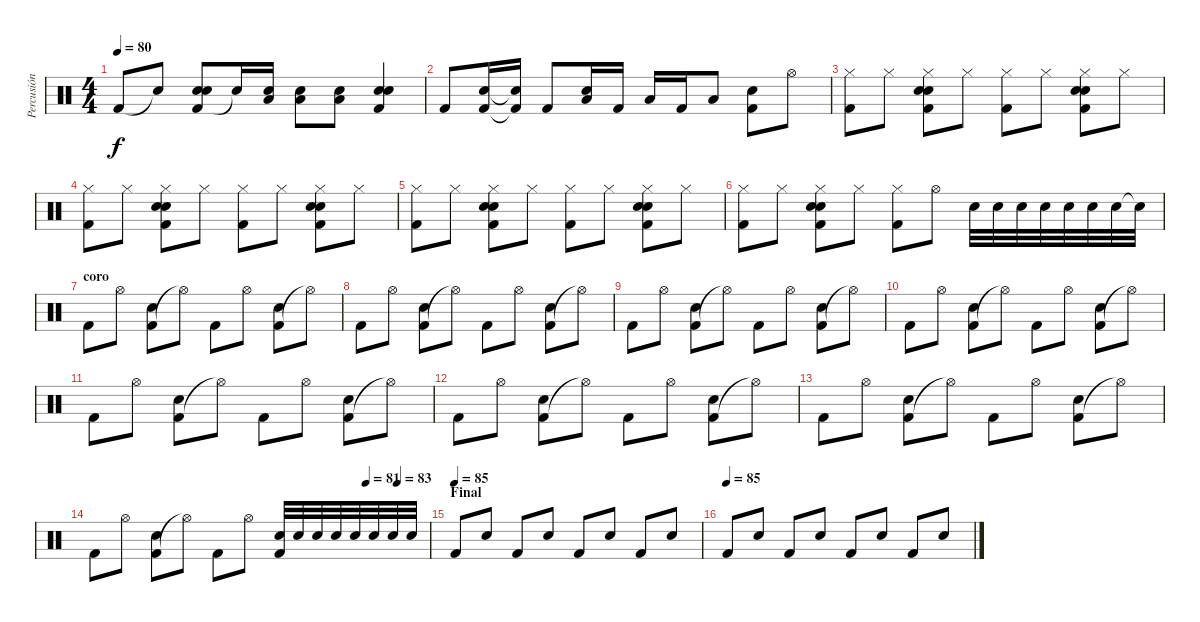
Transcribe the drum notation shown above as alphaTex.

\track ("Percusión" "Percusión") {instrument percussion}
\staff {score}
\articulation defaults
\ts (4 4)
\tempo 80
\clef neutral
\ks c "Kick (hit) 2".8{dy f} "Snare (hit)"{t}.8
("Kick (hit) 2" "Electric Snare (hit)" "Hand Clap (hit)").8 "Snare (hit)"{t}.16 ("Low Floor Tom (hit)" "Electric Snare (hit)").16 ("Low Floor Tom (hit)" "Electric Snare (hit)").8 ("Low Floor Tom (hit)" "Electric Snare (hit)").8 ("Kick (hit) 2" "Electric Snare (hit)" "Hand Clap (hit)").4 |
"Kick (hit) 2".8{volume 16} ("Kick (hit) 2" "Electric Snare (hit)").16 ("Kick (hit) 2"{t} "Electric Snare (hit)"{t}).16 "Kick (hit) 2".8 ("Low Floor Tom (hit)" "Electric Snare (hit)").16 "Kick (hit) 2".16 "Low Floor Tom (hit)".16 "Kick (hit) 2".16 "Low Floor Tom (hit)".8 ("Kick (hit) 2" "Electric Snare (hit)").8 "Hi-Hat (open)".8 |
("Hi-Hat (closed)" "Kick (hit) 2").8{volume 12} "Hi-Hat (closed)".8 ("Hi-Hat (closed)" "Kick (hit) 2" "Electric Snare (hit)" "Hand Clap (hit)").8 "Hi-Hat (closed)".8 ("Hi-Hat (closed)" "Kick (hit) 2").8 "Hi-Hat (closed)".8 ("Hi-Hat (closed)" "Kick (hit) 2" "Electric Snare (hit)" "Hand Clap (hit)").8 "Hi-Hat (closed)".8 |
("Hi-Hat (closed)" "Kick (hit) 2").8 "Hi-Hat (closed)".8 ("Hi-Hat (closed)" "Kick (hit) 2" "Electric Snare (hit)" "Hand Clap (hit)").8 "Hi-Hat (closed)".8 ("Hi-Hat (closed)" "Kick (hit) 2").8 "Hi-Hat (closed)".8 ("Hi-Hat (closed)" "Kick (hit) 2" "Electric Snare (hit)" "Hand Clap (hit)").8 "Hi-Hat (closed)".8 |
("Hi-Hat (closed)" "Kick (hit) 2").8 "Hi-Hat (closed)".8 ("Hi-Hat (closed)" "Kick (hit) 2" "Electric Snare (hit)" "Hand Clap (hit)").8 "Hi-Hat (closed)".8 ("Hi-Hat (closed)" "Kick (hit) 2").8 "Hi-Hat (closed)".8 ("Hi-Hat (closed)" "Kick (hit) 2" "Electric Snare (hit)" "Hand Clap (hit)").8 "Hi-Hat (closed)".8 |
("Hi-Hat (closed)" "Kick (hit) 2").8 "Hi-Hat (closed)".8 ("Hi-Hat (closed)" "Kick (hit) 2" "Electric Snare (hit)" "Hand Clap (hit)").8 "Hi-Hat (closed)".8 ("Hi-Hat (closed)" "Kick (hit) 2").8 "Hi-Hat (open)".8 "Electric Snare (hit)".32 "Electric Snare (hit)".32 "Electric Snare (hit)".32 "Electric Snare (hit)".32 "Electric Snare (hit)".32 "Electric Snare (hit)".32 "Electric Snare (hit)".32 "Electric Snare (hit)"{t}.32 |
\section ("" "coro")
"Kick (hit) 2".8 "Hi-Hat (open)".8 ("Kick (hit) 2" "Hand Clap (hit)").8 "Hi-Hat (open)"{t}.8 "Kick (hit) 2".8 "Hi-Hat (open)".8 ("Kick (hit) 2" "Hand Clap (hit)").8 "Hi-Hat (open)"{t}.8 |
"Kick (hit) 2".8 "Hi-Hat (open)".8 ("Kick (hit) 2" "Hand Clap (hit)").8 "Hi-Hat (open)"{t}.8 "Kick (hit) 2".8 "Hi-Hat (open)".8 ("Kick (hit) 2" "Hand Clap (hit)").8 "Hi-Hat (open)"{t}.8 |
"Kick (hit) 2".8 "Hi-Hat (open)".8 ("Kick (hit) 2" "Hand Clap (hit)").8 "Hi-Hat (open)"{t}.8 "Kick (hit) 2".8 "Hi-Hat (open)".8 ("Kick (hit) 2" "Hand Clap (hit)").8 "Hi-Hat (open)"{t}.8 |
"Kick (hit) 2".8 "Hi-Hat (open)".8 ("Kick (hit) 2" "Hand Clap (hit)").8 "Hi-Hat (open)"{t}.8 "Kick (hit) 2".8 "Hi-Hat (open)".8 ("Kick (hit) 2" "Hand Clap (hit)").8 "Hi-Hat (open)"{t}.8 |
"Kick (hit) 2".8 "Hi-Hat (open)".8 ("Kick (hit) 2" "Hand Clap (hit)").8 "Hi-Hat (open)"{t}.8 "Kick (hit) 2".8 "Hi-Hat (open)".8 ("Kick (hit) 2" "Hand Clap (hit)").8 "Hi-Hat (open)"{t}.8 |
"Kick (hit) 2".8 "Hi-Hat (open)".8 ("Kick (hit) 2" "Hand Clap (hit)").8 "Hi-Hat (open)"{t}.8 "Kick (hit) 2".8 "Hi-Hat (open)".8 ("Kick (hit) 2" "Hand Clap (hit)").8 "Hi-Hat (open)"{t}.8 |
"Kick (hit) 2".8 "Hi-Hat (open)".8 ("Kick (hit) 2" "Hand Clap (hit)").8 "Hi-Hat (open)"{t}.8 "Kick (hit) 2".8 "Hi-Hat (open)".8 ("Kick (hit) 2" "Hand Clap (hit)").8 "Hi-Hat (open)"{t}.8 |
\tempo (81 0.8125)
\tempo (83 0.90625)
"Kick (hit) 2".8 "Hi-Hat (open)".8 ("Kick (hit) 2" "Hand Clap (hit)").8 "Hi-Hat (open)"{t}.8 "Kick (hit) 2".8 "Hi-Hat (open)".8 ("Kick (hit) 2" "Hand Clap (hit)").32 "Electric Snare (hit)".32 "Electric Snare (hit)".32 "Electric Snare (hit)".32 "Electric Snare (hit)".32 "Electric Snare (hit)".32 "Electric Snare (hit)".32 "Electric Snare (hit)".32 |
\section ("" "Final")
\tempo (85)
"Kick (hit) 2".8 "Electric Snare (hit)".8 "Kick (hit) 2".8 "Electric Snare (hit)".8 "Kick (hit) 2".8 "Electric Snare (hit)".8 "Kick (hit) 2".8 "Electric Snare (hit)".8 |
\tempo (85)
"Kick (hit) 2".8 "Electric Snare (hit)".8 "Kick (hit) 2".8 "Electric Snare (hit)".8 "Kick (hit) 2".8 "Electric Snare (hit)".8 "Kick (hit) 2".8 "Electric Snare (hit)".8
